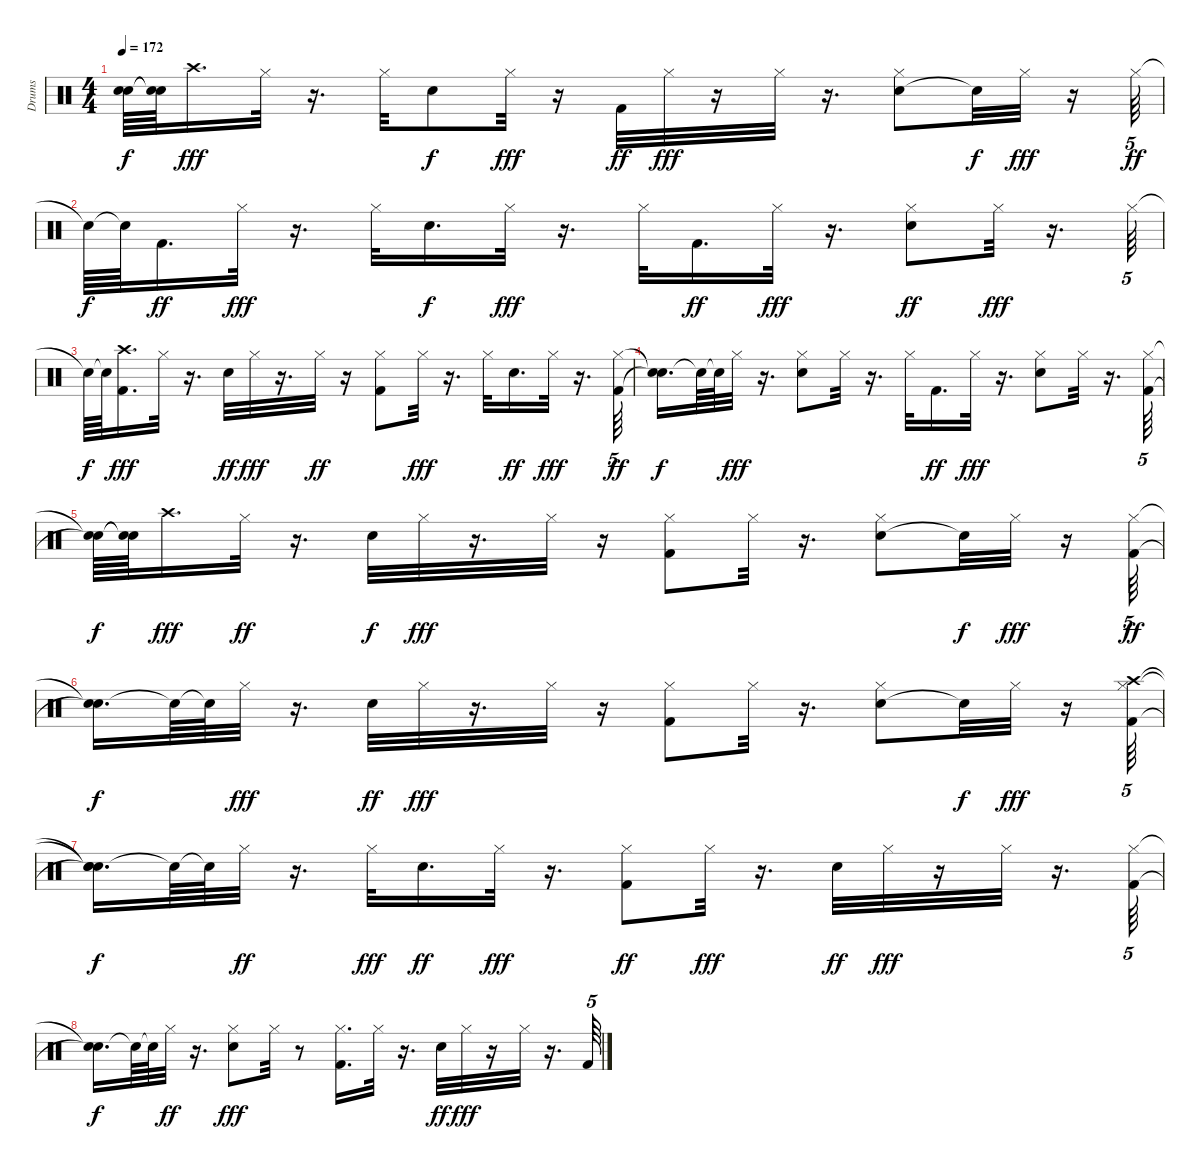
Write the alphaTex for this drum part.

\track ("Drums" "Drums") {instrument percussion}
\staff {score}
\articulation defaults
\ts (4 4)
\tempo 172
\clef neutral
\ks c
("Snare (hit)"{t} "Snare (hit)"{t}).64{dy f} ("Snare (hit)"{t} "Snare (hit)"{t}).64 "Crash high (hit)".16{d dy fff} "Hi-Hat (closed)".32 r.16{d} "Hi-Hat (closed)".32 "Electric Snare (hit)".8{dy f} "Hi-Hat (closed)".32{dy fff} r.16 "Kick (hit) 2".32{dy ff} "Hi-Hat (closed)".32{dy fff} r.16 "Hi-Hat (closed)".32 r.16{d} ("Electric Snare (hit)" "Hi-Hat (closed)").8 "Snare (hit)"{t}.32{dy f} "Hi-Hat (closed)".32{dy fff} r.16 "Hi-Hat (closed)".64{tu (5 4) dy ff} |
"Snare (hit)"{t}.64{dy f} "Snare (hit)"{t}.64 "Kick (hit) 2".16{d dy ff} "Hi-Hat (closed)".32{dy fff} r.16{d} "Hi-Hat (closed)".32 "Electric Snare (hit)".16{d dy f} "Hi-Hat (closed)".32{dy fff} r.16{d} "Hi-Hat (closed)".32 "Kick (hit) 2".16{d dy ff} "Hi-Hat (closed)".32{dy fff} r.16{d} ("Hi-Hat (closed)" "Electric Snare (hit)").8{dy ff} "Hi-Hat (closed)".32{dy fff} r.16{d} "Hi-Hat (closed)".64{tu (5 4)} |
"Snare (hit)"{t}.64{dy f} "Snare (hit)"{t}.64 ("Kick (hit) 2" "Crash high (hit)").16{d dy fff} "Hi-Hat (closed)".32 r.16{d} "Electric Snare (hit)".32{dy ff} "Hi-Hat (closed)".32{dy fff} r.16{d} "Hi-Hat (closed)".32{dy ff} r.16 ("Kick (hit) 2" "Hi-Hat (closed)").8 "Hi-Hat (closed)".32{dy fff} r.16{d} "Hi-Hat (closed)".32 "Electric Snare (hit)".16{d dy ff} "Hi-Hat (closed)".32{dy fff} r.16{d} ("Hi-Hat (closed)" "Kick (hit) 2").64{tu (5 4) dy ff} |
("Snare (hit)"{t} "Snare (hit)"{t}).16{d dy f} "Snare (hit)"{t}.64 "Snare (hit)"{t}.64 "Hi-Hat (closed)".32{dy fff} r.16{d} ("Electric Snare (hit)" "Hi-Hat (closed)").8 "Hi-Hat (closed)".32 r.16{d} "Hi-Hat (closed)".32 "Kick (hit) 2".16{d dy ff} "Hi-Hat (closed)".32{dy fff} r.16{d} ("Electric Snare (hit)" "Hi-Hat (closed)").8 "Hi-Hat (closed)".32 r.16{d} ("Kick (hit) 2" "Hi-Hat (closed)").64{tu (5 4)} |
("Snare (hit)"{t} "Snare (hit)"{t}).64{dy f} ("Snare (hit)"{t} "Snare (hit)"{t}).64 "Crash high (hit)".16{d dy fff} "Hi-Hat (closed)".32{dy ff} r.16{d} "Electric Snare (hit)".32{dy f} "Hi-Hat (closed)".32{dy fff} r.16{d} "Hi-Hat (closed)".32 r.16 ("Hi-Hat (closed)" "Kick (hit) 2").8 "Hi-Hat (closed)".32 r.16{d} ("Electric Snare (hit)" "Hi-Hat (closed)").8 "Snare (hit)"{t}.32{dy f} "Hi-Hat (closed)".32{dy fff} r.16 ("Hi-Hat (closed)" "Kick (hit) 2").64{tu (5 4) dy ff} |
("Snare (hit)"{t} "Snare (hit)"{t}).16{d dy f} "Snare (hit)"{t}.64 "Snare (hit)"{t}.64 "Hi-Hat (closed)".32{dy fff} r.16{d} "Electric Snare (hit)".32{dy ff} "Hi-Hat (closed)".32{dy fff} r.16{d} "Hi-Hat (closed)".32 r.16 ("Kick (hit) 2" "Hi-Hat (closed)").8 "Hi-Hat (closed)".32 r.16{d} ("Electric Snare (hit)" "Hi-Hat (closed)").8 "Snare (hit)"{t}.32{dy f} "Hi-Hat (closed)".32{dy fff} r.16 ("Crash high (hit)" "Hi-Hat (closed)" "Kick (hit) 2").64{tu (5 4)} |
("Snare (hit)"{t} "Snare (hit)"{t} "Snare (hit)"{t}).16{d dy f} "Snare (hit)"{t}.64 "Snare (hit)"{t}.64 "Hi-Hat (closed)".32{dy ff} r.16{d} "Hi-Hat (closed)".32{dy fff} "Electric Snare (hit)".16{d dy ff} "Hi-Hat (closed)".32{dy fff} r.16{d} ("Hi-Hat (closed)" "Kick (hit) 2").8{dy ff} "Hi-Hat (closed)".32{dy fff} r.16{d} "Electric Snare (hit)".32{dy ff} "Hi-Hat (closed)".32{dy fff} r.16 "Hi-Hat (closed)".32 r.16{d} ("Kick (hit) 2" "Hi-Hat (closed)").64{tu (5 4)} |
("Snare (hit)"{t} "Snare (hit)"{t}).16{d dy f} "Snare (hit)"{t}.64 "Snare (hit)"{t}.64 "Hi-Hat (closed)".32{dy ff} r.16{d} ("Electric Snare (hit)" "Hi-Hat (closed)").8{dy fff} "Hi-Hat (closed)".32 r.8 ("Kick (hit) 2" "Hi-Hat (closed)").16{d} "Hi-Hat (closed)".32 r.16{d} "Electric Snare (hit)".32{dy ff} "Hi-Hat (closed)".32{dy fff} r.16 "Hi-Hat (closed)".32 r.16{d} "Kick (hit) 2".64{tu (5 4)}
